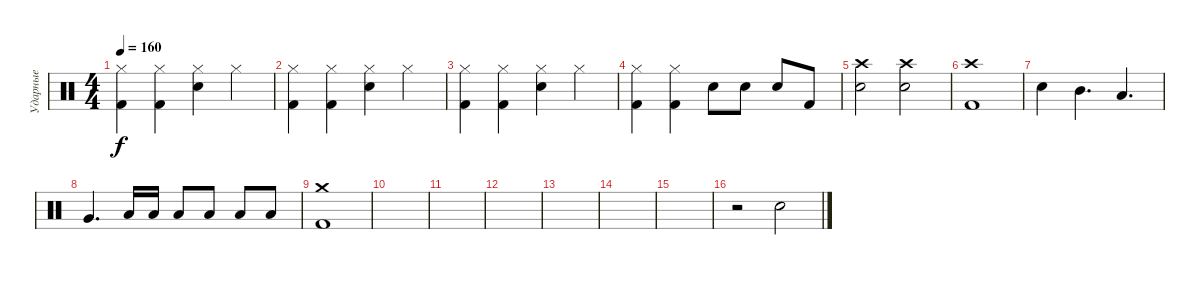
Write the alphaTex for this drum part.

\track ("Ударные" "Ударные") {instrument percussion}
\staff {score}
\articulation defaults
\ts (4 4)
\tempo 160
\clef neutral
\ks c
("Hi-Hat (closed)" "Kick (hit) 2").4{dy f} ("Hi-Hat (closed)" "Kick (hit) 2").4 ("Electric Snare (hit)" "Hi-Hat (closed)").4 "Hi-Hat (closed)".4 |
("Hi-Hat (closed)" "Kick (hit) 2").4 ("Hi-Hat (closed)" "Kick (hit) 2").4 ("Electric Snare (hit)" "Hi-Hat (closed)").4 "Hi-Hat (closed)".4 |
("Hi-Hat (closed)" "Kick (hit) 2").4 ("Hi-Hat (closed)" "Kick (hit) 2").4 ("Electric Snare (hit)" "Hi-Hat (closed)").4 "Hi-Hat (closed)".4 |
("Hi-Hat (closed)" "Kick (hit) 2").4 ("Hi-Hat (closed)" "Kick (hit) 2").4 "Electric Snare (hit)".8 "Electric Snare (hit)".8 "Electric Snare (hit)".8 "Kick (hit) 2".8 |
("Crash high (hit)" "Electric Snare (hit)").2 ("Crash high (hit)" "Electric Snare (hit)").2 |
("Crash high (hit)" "Kick (hit) 2").1 |
"Electric Snare (hit)".4 "Mid Tom (hit)".4{d} "Low Tom (hit)".4{d} |
"Very Low Tom (hit)".4{d} "Low Floor Tom (hit)".16 "Low Floor Tom (hit)".16 "Low Floor Tom (hit)".8 "Low Floor Tom (hit)".8 "Low Floor Tom (hit)".8 "Low Floor Tom (hit)".8 |
("Crash medium (hit)" "Kick (hit) 2").1 |
|
|
|
|
|
|
r.2 "Electric Snare (hit)".2
